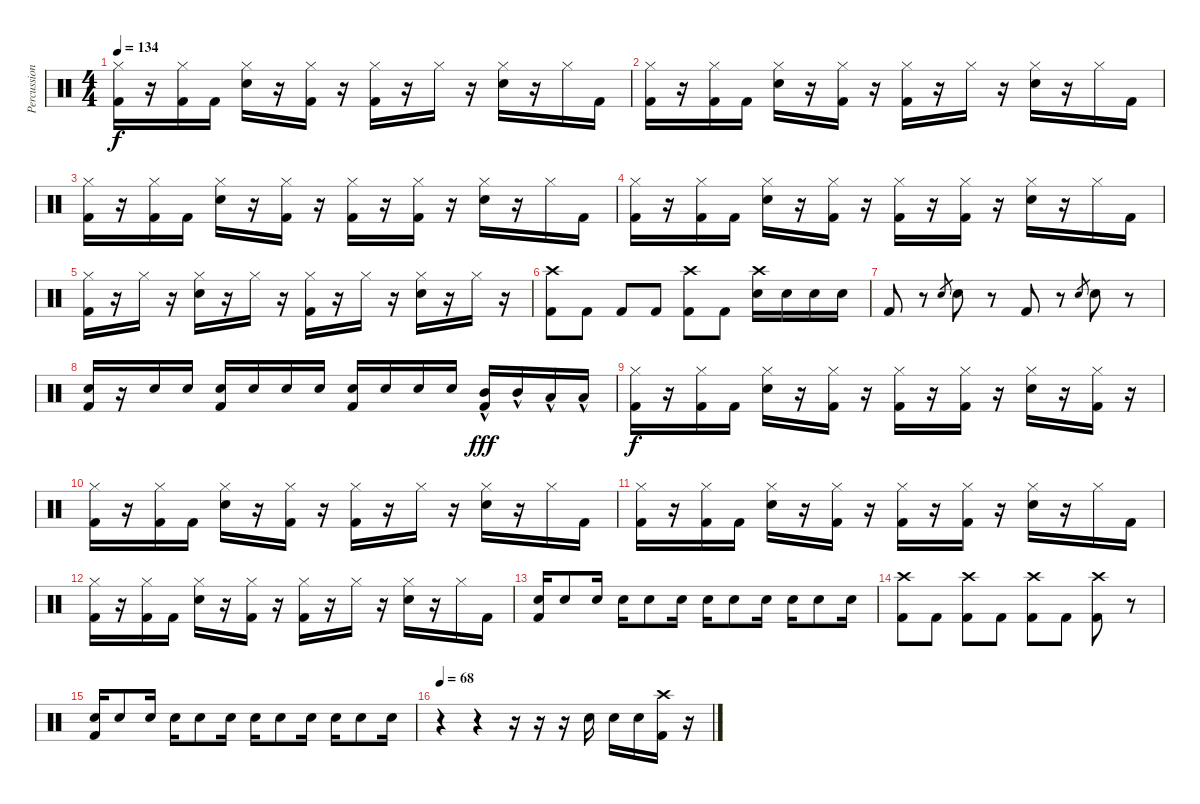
\track ("Percussion" "Percussion") {instrument percussion}
\staff {score}
\articulation defaults
\ts (4 4)
\tempo 134
\clef neutral
\ks c
("Hi-Hat (closed)" "Kick (hit) 2").16{dy f} r.16 ("Hi-Hat (closed)" "Kick (hit) 2").16 "Kick (hit) 2".16 ("Hi-Hat (closed)" "Snare (hit) 2").16 r.16 ("Hi-Hat (closed)" "Kick (hit) 2").16 r.16 ("Hi-Hat (closed)" "Kick (hit) 2").16 r.16 "Hi-Hat (closed)".16 r.16 ("Hi-Hat (closed)" "Snare (hit) 2").16 r.16 "Hi-Hat (closed)".16 "Kick (hit) 2".16 |
("Hi-Hat (closed)" "Kick (hit) 2").16 r.16 ("Hi-Hat (closed)" "Kick (hit) 2").16 "Kick (hit) 2".16 ("Hi-Hat (closed)" "Snare (hit) 2").16 r.16 ("Hi-Hat (closed)" "Kick (hit) 2").16 r.16 ("Hi-Hat (closed)" "Kick (hit) 2").16 r.16 "Hi-Hat (closed)".16 r.16 ("Hi-Hat (closed)" "Snare (hit) 2").16 r.16 "Hi-Hat (closed)".16 "Kick (hit) 2".16 |
("Hi-Hat (closed)" "Kick (hit) 2").16 r.16 ("Hi-Hat (closed)" "Kick (hit) 2").16 "Kick (hit) 2".16 ("Hi-Hat (closed)" "Snare (hit) 2").16 r.16 ("Hi-Hat (closed)" "Kick (hit) 2").16 r.16 ("Hi-Hat (closed)" "Kick (hit) 2").16 r.16 ("Hi-Hat (closed)" "Kick (hit) 2").16 r.16 ("Hi-Hat (closed)" "Snare (hit) 2").16 r.16 "Hi-Hat (closed)".16 "Kick (hit) 2".16 |
("Hi-Hat (closed)" "Kick (hit) 2").16 r.16 ("Hi-Hat (closed)" "Kick (hit) 2").16 "Kick (hit) 2".16 ("Hi-Hat (closed)" "Snare (hit) 2").16 r.16 ("Hi-Hat (closed)" "Kick (hit) 2").16 r.16 ("Hi-Hat (closed)" "Kick (hit) 2").16 r.16 ("Hi-Hat (closed)" "Kick (hit) 2").16 r.16 ("Hi-Hat (closed)" "Snare (hit) 2").16 r.16 "Hi-Hat (closed)".16 "Kick (hit) 2".16 |
("Hi-Hat (closed)" "Kick (hit) 2").16 r.16 "Hi-Hat (closed)".16 r.16 ("Hi-Hat (closed)" "Snare (hit) 2").16 r.16 "Hi-Hat (closed)".16 r.16 ("Hi-Hat (closed)" "Kick (hit) 2").16 r.16 "Hi-Hat (closed)".16 r.16 ("Hi-Hat (closed)" "Snare (hit) 2").16 r.16 "Hi-Hat (closed)".16 r.16 |
("Crash high (hit)" "Kick (hit) 2").8 "Kick (hit) 2".8 "Kick (hit) 2".8 "Kick (hit) 2".8 ("Crash high (hit)" "Kick (hit) 2").8 "Kick (hit) 2".8 ("Crash high (hit)" "Snare (hit) 2").16 "Snare (hit) 2".16 "Snare (hit) 2".16 "Snare (hit) 2".16 |
"Kick (hit) 2".8 r.8 "Snare (hit) 2".8{gr} "Snare (hit) 2".8 r.8 "Kick (hit) 2".8 r.8 "Snare (hit) 2".8{gr} "Snare (hit) 2".8 r.8 |
("Snare (hit) 2" "Kick (hit) 2").16 r.16 "Snare (hit) 2".16 "Snare (hit) 2".16 ("Snare (hit) 2" "Kick (hit) 2").16 "Snare (hit) 2".16 "Snare (hit) 2".16 "Snare (hit) 2".16 ("Snare (hit) 2" "Kick (hit) 2").16 "Snare (hit) 2".16 "Snare (hit) 2".16 "Snare (hit) 2".16 ("Mid Tom (hit)"{hac} "Kick (hit) 2").16{dy fff balance 0} "Mid Tom (hit)"{hac}.16{balance 5} "Low Tom (hit)"{hac}.16{balance 12} "Low Tom (hit)"{hac}.16{balance 16} |
("Hi-Hat (closed)" "Kick (hit) 2").16{dy f balance 8} r.16 ("Hi-Hat (closed)" "Kick (hit) 2").16 "Kick (hit) 2".16 ("Hi-Hat (closed)" "Snare (hit) 2").16 r.16 ("Hi-Hat (closed)" "Kick (hit) 2").16 r.16 ("Hi-Hat (closed)" "Kick (hit) 2").16 r.16 ("Hi-Hat (closed)" "Kick (hit) 2").16 r.16 ("Hi-Hat (closed)" "Snare (hit) 2").16 r.16 ("Hi-Hat (closed)" "Kick (hit) 2").16 r.16 |
("Hi-Hat (closed)" "Kick (hit) 2").16 r.16 ("Hi-Hat (closed)" "Kick (hit) 2").16 "Kick (hit) 2".16 ("Hi-Hat (closed)" "Snare (hit) 2").16 r.16 ("Hi-Hat (closed)" "Kick (hit) 2").16 r.16 ("Hi-Hat (closed)" "Kick (hit) 2").16 r.16 "Hi-Hat (closed)".16 r.16 ("Hi-Hat (closed)" "Snare (hit) 2").16 r.16 "Hi-Hat (closed)".16 "Kick (hit) 2".16 |
("Hi-Hat (closed)" "Kick (hit) 2").16 r.16 ("Hi-Hat (closed)" "Kick (hit) 2").16 "Kick (hit) 2".16 ("Hi-Hat (closed)" "Snare (hit) 2").16 r.16 ("Hi-Hat (closed)" "Kick (hit) 2").16 r.16 ("Hi-Hat (closed)" "Kick (hit) 2").16 r.16 ("Hi-Hat (closed)" "Kick (hit) 2").16 r.16 ("Hi-Hat (closed)" "Snare (hit) 2").16 r.16 "Hi-Hat (closed)".16 "Kick (hit) 2".16 |
("Hi-Hat (closed)" "Kick (hit) 2").16 r.16 ("Hi-Hat (closed)" "Kick (hit) 2").16 "Kick (hit) 2".16 ("Hi-Hat (closed)" "Snare (hit) 2").16 r.16 ("Hi-Hat (closed)" "Kick (hit) 2").16 r.16 ("Hi-Hat (closed)" "Kick (hit) 2").16 r.16 "Hi-Hat (closed)".16 r.16 ("Hi-Hat (closed)" "Snare (hit) 2").16 r.16 "Hi-Hat (closed)".16 "Kick (hit) 2".16 |
("Snare (hit) 2" "Kick (hit) 2").16 "Snare (hit) 2".8 "Snare (hit) 2".16 "Snare (hit) 2".16 "Snare (hit) 2".8 "Snare (hit) 2".16 "Snare (hit) 2".16 "Snare (hit) 2".8 "Snare (hit) 2".16 "Snare (hit) 2".16 "Snare (hit) 2".8 "Snare (hit) 2".16 |
("Crash high (hit)" "Kick (hit) 2").8 "Kick (hit) 2".8 ("Crash high (hit)" "Kick (hit) 2").8 "Kick (hit) 2".8 ("Crash high (hit)" "Kick (hit) 2").8 "Kick (hit) 2".8 ("Crash high (hit)" "Kick (hit) 2").8 r.8 |
("Snare (hit) 2" "Kick (hit) 2").16 "Snare (hit) 2".8 "Snare (hit) 2".16 "Snare (hit) 2".16 "Snare (hit) 2".8 "Snare (hit) 2".16 "Snare (hit) 2".16 "Snare (hit) 2".8 "Snare (hit) 2".16 "Snare (hit) 2".16 "Snare (hit) 2".8 "Snare (hit) 2".16 |
\tempo 68
r.4 r.4 r.16 r.16 r.16 "Snare (hit) 2".16 "Snare (hit) 2".16 "Snare (hit) 2".16 ("Crash high (hit)" "Kick (hit) 2").16 r.16
